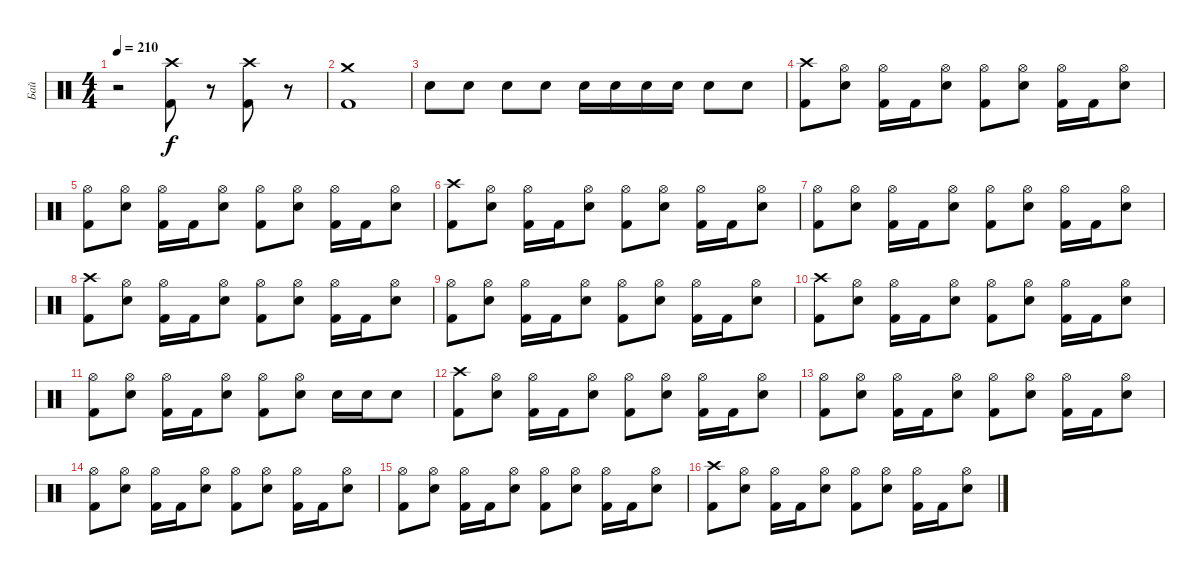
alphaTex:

\track ("Бай" "Бай") {instrument percussion}
\staff {score}
\articulation defaults
\ts (4 4)
\tempo 210
\clef neutral
\ks c
r.2{dy f} ("Crash high (hit)" "Kick (hit) 2").8 r.8 ("Crash high (hit)" "Kick (hit) 2").8 r.8 |
("Crash medium (hit)" "Kick (hit) 2").1 |
"Electric Snare (hit)".8 "Electric Snare (hit)".8 "Electric Snare (hit)".8 "Electric Snare (hit)".8 "Electric Snare (hit)".16 "Electric Snare (hit)".16 "Electric Snare (hit)".16 "Electric Snare (hit)".16 "Electric Snare (hit)".8 "Electric Snare (hit)".8 |
("Crash high (hit)" "Kick (hit) 2").8 ("Hi-Hat (open)" "Electric Snare (hit)").8 ("Hi-Hat (open)" "Kick (hit) 2").16 "Kick (hit) 2".16 ("Hi-Hat (open)" "Electric Snare (hit)").8 ("Hi-Hat (open)" "Kick (hit) 2").8 ("Hi-Hat (open)" "Electric Snare (hit)").8 ("Hi-Hat (open)" "Kick (hit) 2").16 "Kick (hit) 2".16 ("Hi-Hat (open)" "Electric Snare (hit)").8 |
("Hi-Hat (open)" "Kick (hit) 2").8 ("Hi-Hat (open)" "Electric Snare (hit)").8 ("Hi-Hat (open)" "Kick (hit) 2").16 "Kick (hit) 2".16 ("Hi-Hat (open)" "Electric Snare (hit)").8 ("Hi-Hat (open)" "Kick (hit) 2").8 ("Hi-Hat (open)" "Electric Snare (hit)").8 ("Hi-Hat (open)" "Kick (hit) 2").16 "Kick (hit) 2".16 ("Hi-Hat (open)" "Electric Snare (hit)").8 |
("Crash high (hit)" "Kick (hit) 2").8 ("Hi-Hat (open)" "Electric Snare (hit)").8 ("Hi-Hat (open)" "Kick (hit) 2").16 "Kick (hit) 2".16 ("Hi-Hat (open)" "Electric Snare (hit)").8 ("Hi-Hat (open)" "Kick (hit) 2").8 ("Hi-Hat (open)" "Electric Snare (hit)").8 ("Hi-Hat (open)" "Kick (hit) 2").16 "Kick (hit) 2".16 ("Hi-Hat (open)" "Electric Snare (hit)").8 |
("Hi-Hat (open)" "Kick (hit) 2").8 ("Hi-Hat (open)" "Electric Snare (hit)").8 ("Hi-Hat (open)" "Kick (hit) 2").16 "Kick (hit) 2".16 ("Hi-Hat (open)" "Electric Snare (hit)").8 ("Hi-Hat (open)" "Kick (hit) 2").8 ("Hi-Hat (open)" "Electric Snare (hit)").8 ("Hi-Hat (open)" "Kick (hit) 2").16 "Kick (hit) 2".16 ("Hi-Hat (open)" "Electric Snare (hit)").8 |
("Crash high (hit)" "Kick (hit) 2").8 ("Hi-Hat (open)" "Electric Snare (hit)").8 ("Hi-Hat (open)" "Kick (hit) 2").16 "Kick (hit) 2".16 ("Hi-Hat (open)" "Electric Snare (hit)").8 ("Hi-Hat (open)" "Kick (hit) 2").8 ("Hi-Hat (open)" "Electric Snare (hit)").8 ("Hi-Hat (open)" "Kick (hit) 2").16 "Kick (hit) 2".16 ("Hi-Hat (open)" "Electric Snare (hit)").8 |
("Hi-Hat (open)" "Kick (hit) 2").8 ("Hi-Hat (open)" "Electric Snare (hit)").8 ("Hi-Hat (open)" "Kick (hit) 2").16 "Kick (hit) 2".16 ("Hi-Hat (open)" "Electric Snare (hit)").8 ("Hi-Hat (open)" "Kick (hit) 2").8 ("Hi-Hat (open)" "Electric Snare (hit)").8 ("Hi-Hat (open)" "Kick (hit) 2").16 "Kick (hit) 2".16 ("Hi-Hat (open)" "Electric Snare (hit)").8 |
("Crash high (hit)" "Kick (hit) 2").8 ("Hi-Hat (open)" "Electric Snare (hit)").8 ("Hi-Hat (open)" "Kick (hit) 2").16 "Kick (hit) 2".16 ("Hi-Hat (open)" "Electric Snare (hit)").8 ("Hi-Hat (open)" "Kick (hit) 2").8 ("Hi-Hat (open)" "Electric Snare (hit)").8 ("Hi-Hat (open)" "Kick (hit) 2").16 "Kick (hit) 2".16 ("Hi-Hat (open)" "Electric Snare (hit)").8 |
("Hi-Hat (open)" "Kick (hit) 2").8 ("Hi-Hat (open)" "Electric Snare (hit)").8 ("Hi-Hat (open)" "Kick (hit) 2").16 "Kick (hit) 2".16 ("Hi-Hat (open)" "Electric Snare (hit)").8 ("Hi-Hat (open)" "Kick (hit) 2").8 ("Hi-Hat (open)" "Electric Snare (hit)").8 "Electric Snare (hit)".16 "Electric Snare (hit)".16 "Electric Snare (hit)".8 |
("Crash high (hit)" "Kick (hit) 2").8 ("Hi-Hat (open)" "Electric Snare (hit)").8 ("Hi-Hat (open)" "Kick (hit) 2").16 "Kick (hit) 2".16 ("Hi-Hat (open)" "Electric Snare (hit)").8 ("Hi-Hat (open)" "Kick (hit) 2").8 ("Hi-Hat (open)" "Electric Snare (hit)").8 ("Hi-Hat (open)" "Kick (hit) 2").16 "Kick (hit) 2".16 ("Hi-Hat (open)" "Electric Snare (hit)").8 |
("Hi-Hat (open)" "Kick (hit) 2").8 ("Hi-Hat (open)" "Electric Snare (hit)").8 ("Hi-Hat (open)" "Kick (hit) 2").16 "Kick (hit) 2".16 ("Hi-Hat (open)" "Electric Snare (hit)").8 ("Hi-Hat (open)" "Kick (hit) 2").8 ("Hi-Hat (open)" "Electric Snare (hit)").8 ("Hi-Hat (open)" "Kick (hit) 2").16 "Kick (hit) 2".16 ("Hi-Hat (open)" "Electric Snare (hit)").8 |
("Hi-Hat (open)" "Kick (hit) 2").8 ("Hi-Hat (open)" "Electric Snare (hit)").8 ("Hi-Hat (open)" "Kick (hit) 2").16 "Kick (hit) 2".16 ("Hi-Hat (open)" "Electric Snare (hit)").8 ("Hi-Hat (open)" "Kick (hit) 2").8 ("Hi-Hat (open)" "Electric Snare (hit)").8 ("Hi-Hat (open)" "Kick (hit) 2").16 "Kick (hit) 2".16 ("Hi-Hat (open)" "Electric Snare (hit)").8 |
("Hi-Hat (open)" "Kick (hit) 2").8 ("Hi-Hat (open)" "Electric Snare (hit)").8 ("Hi-Hat (open)" "Kick (hit) 2").16 "Kick (hit) 2".16 ("Hi-Hat (open)" "Electric Snare (hit)").8 ("Hi-Hat (open)" "Kick (hit) 2").8 ("Hi-Hat (open)" "Electric Snare (hit)").8 ("Hi-Hat (open)" "Kick (hit) 2").16 "Kick (hit) 2".16 ("Hi-Hat (open)" "Electric Snare (hit)").8 |
("Crash high (hit)" "Kick (hit) 2").8 ("Hi-Hat (open)" "Electric Snare (hit)").8 ("Hi-Hat (open)" "Kick (hit) 2").16 "Kick (hit) 2".16 ("Hi-Hat (open)" "Electric Snare (hit)").8 ("Hi-Hat (open)" "Kick (hit) 2").8 ("Hi-Hat (open)" "Electric Snare (hit)").8 ("Hi-Hat (open)" "Kick (hit) 2").16 "Kick (hit) 2".16 ("Hi-Hat (open)" "Electric Snare (hit)").8
